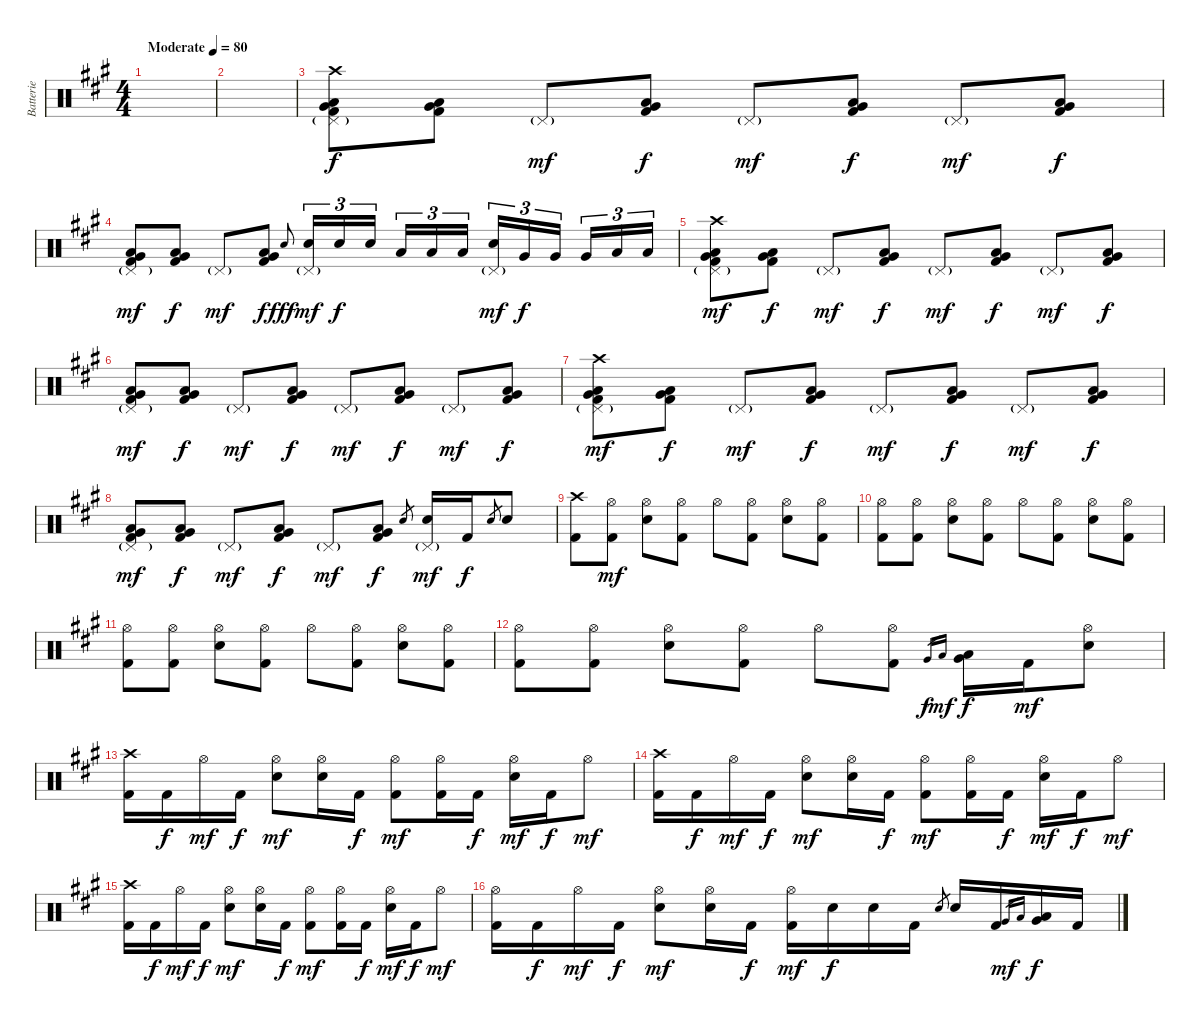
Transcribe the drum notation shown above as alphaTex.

\track ("Batterie" "Batterie") {instrument percussion}
\staff {score}
\articulation defaults
\ts (4 4)
\tempo (80 "Moderate")
\clef neutral
\ks a
|
|
("Crash high (hit)" "Pedal Hi-Hat (hit)"{g} "Low Floor Tom (hit)" "Very Low Tom (hit)" "Kick (hit) 2").8 ("Low Floor Tom (hit)" "Very Low Tom (hit)" "Kick (hit) 2").8{dy f} "Pedal Hi-Hat (hit)"{g}.8{dy mf} ("Low Floor Tom (hit)" "Very Low Tom (hit)" "Kick (hit) 2").8{dy f} "Pedal Hi-Hat (hit)"{g}.8{dy mf} ("Low Floor Tom (hit)" "Very Low Tom (hit)" "Kick (hit) 2").8{dy f} "Pedal Hi-Hat (hit)"{g}.8{dy mf} ("Low Floor Tom (hit)" "Very Low Tom (hit)" "Kick (hit) 2").8{dy f} |
("Pedal Hi-Hat (hit)"{g} "Low Floor Tom (hit)" "Very Low Tom (hit)" "Kick (hit) 2").8{dy mf} ("Low Floor Tom (hit)" "Very Low Tom (hit)" "Kick (hit) 2").8{dy f} "Pedal Hi-Hat (hit)"{g}.8{dy mf} ("Low Floor Tom (hit)" "Very Low Tom (hit)" "Kick (hit) 2").8{dy f} "Electric Snare (hit)".8{gr onbeat dy fff} ("Pedal Hi-Hat (hit)"{g} "Electric Snare (hit)").16{tu (3 2) dy mf} "Electric Snare (hit)".16{tu (3 2) dy f} "Electric Snare (hit)".16{tu (3 2) beam splitsecondary} "Low Tom (hit)".16{tu (3 2)} "Low Tom (hit)".16{tu (3 2)} "Low Tom (hit)".16{tu (3 2)} ("Pedal Hi-Hat (hit)"{g} "Electric Snare (hit)").16{tu (3 2) dy mf} "Very Low Tom (hit)".16{tu (3 2) dy f} "Very Low Tom (hit)".16{tu (3 2) beam splitsecondary} "Very Low Tom (hit)".16{tu (3 2)} "Low Floor Tom (hit)".16{tu (3 2)} "Low Floor Tom (hit)".16{tu (3 2)} |
("Crash high (hit)" "Pedal Hi-Hat (hit)"{g} "Low Floor Tom (hit)" "Very Low Tom (hit)" "Kick (hit) 2").8{dy mf} ("Low Floor Tom (hit)" "Very Low Tom (hit)" "Kick (hit) 2").8{dy f} "Pedal Hi-Hat (hit)"{g}.8{dy mf} ("Low Floor Tom (hit)" "Very Low Tom (hit)" "Kick (hit) 2").8{dy f} "Pedal Hi-Hat (hit)"{g}.8{dy mf} ("Low Floor Tom (hit)" "Very Low Tom (hit)" "Kick (hit) 2").8{dy f} "Pedal Hi-Hat (hit)"{g}.8{dy mf} ("Low Floor Tom (hit)" "Very Low Tom (hit)" "Kick (hit) 2").8{dy f} |
("Pedal Hi-Hat (hit)"{g} "Low Floor Tom (hit)" "Very Low Tom (hit)" "Kick (hit) 2").8{dy mf} ("Low Floor Tom (hit)" "Very Low Tom (hit)" "Kick (hit) 2").8{dy f} "Pedal Hi-Hat (hit)"{g}.8{dy mf} ("Low Floor Tom (hit)" "Very Low Tom (hit)" "Kick (hit) 2").8{dy f} "Pedal Hi-Hat (hit)"{g}.8{dy mf} ("Low Floor Tom (hit)" "Very Low Tom (hit)" "Kick (hit) 2").8{dy f} "Pedal Hi-Hat (hit)"{g}.8{dy mf} ("Low Floor Tom (hit)" "Very Low Tom (hit)" "Kick (hit) 2").8{dy f} |
("Crash high (hit)" "Pedal Hi-Hat (hit)"{g} "Low Floor Tom (hit)" "Very Low Tom (hit)" "Kick (hit) 2").8{dy mf} ("Low Floor Tom (hit)" "Very Low Tom (hit)" "Kick (hit) 2").8{dy f} "Pedal Hi-Hat (hit)"{g}.8{dy mf} ("Low Floor Tom (hit)" "Very Low Tom (hit)" "Kick (hit) 2").8{dy f} "Pedal Hi-Hat (hit)"{g}.8{dy mf} ("Low Floor Tom (hit)" "Very Low Tom (hit)" "Kick (hit) 2").8{dy f} "Pedal Hi-Hat (hit)"{g}.8{dy mf} ("Low Floor Tom (hit)" "Very Low Tom (hit)" "Kick (hit) 2").8{dy f} |
("Pedal Hi-Hat (hit)"{g} "Low Floor Tom (hit)" "Very Low Tom (hit)" "Kick (hit) 2").8{dy mf} ("Low Floor Tom (hit)" "Very Low Tom (hit)" "Kick (hit) 2").8{dy f} "Pedal Hi-Hat (hit)"{g}.8{dy mf} ("Low Floor Tom (hit)" "Very Low Tom (hit)" "Kick (hit) 2").8{dy f} "Pedal Hi-Hat (hit)"{g}.8{dy mf} ("Low Floor Tom (hit)" "Very Low Tom (hit)" "Kick (hit) 2").8{dy f} "Electric Snare (hit)".8{gr} ("Pedal Hi-Hat (hit)"{g} "Electric Snare (hit)").16{dy mf} "Kick (hit) 2".16{dy f} "Electric Snare (hit)".8{gr} "Electric Snare (hit)".8 |
("Crash high (hit)" "Kick (hit) 2").8 ("Hi-Hat (open)" "Kick (hit) 2").8{dy mf} ("Hi-Hat (open)" "Electric Snare (hit)").8 ("Hi-Hat (open)" "Kick (hit) 2").8 "Hi-Hat (open)".8 ("Hi-Hat (open)" "Kick (hit) 2").8 ("Hi-Hat (open)" "Electric Snare (hit)").8 ("Hi-Hat (open)" "Kick (hit) 2").8 |
("Hi-Hat (open)" "Kick (hit) 2").8 ("Hi-Hat (open)" "Kick (hit) 2").8 ("Hi-Hat (open)" "Electric Snare (hit)").8 ("Hi-Hat (open)" "Kick (hit) 2").8 "Hi-Hat (open)".8 ("Hi-Hat (open)" "Kick (hit) 2").8 ("Hi-Hat (open)" "Electric Snare (hit)").8 ("Hi-Hat (open)" "Kick (hit) 2").8 |
("Hi-Hat (open)" "Kick (hit) 2").8 ("Hi-Hat (open)" "Kick (hit) 2").8 ("Hi-Hat (open)" "Electric Snare (hit)").8 ("Hi-Hat (open)" "Kick (hit) 2").8 "Hi-Hat (open)".8 ("Hi-Hat (open)" "Kick (hit) 2").8 ("Hi-Hat (open)" "Electric Snare (hit)").8 ("Hi-Hat (open)" "Kick (hit) 2").8 |
("Hi-Hat (open)" "Kick (hit) 2").8 ("Hi-Hat (open)" "Kick (hit) 2").8 ("Hi-Hat (open)" "Electric Snare (hit)").8 ("Hi-Hat (open)" "Kick (hit) 2").8 "Hi-Hat (open)".8 ("Hi-Hat (open)" "Kick (hit) 2").8 "Very Low Tom (hit)".16{gr dy f} "Low Floor Tom (hit)".16{gr dy mf} ("Very Low Tom (hit)" "Low Floor Tom (hit)").16{dy f} "Kick (hit) 2".16{dy mf} ("Hi-Hat (open)" "Electric Snare (hit)").8 |
("Crash high (hit)" "Kick (hit) 2").16 "Kick (hit) 2".16{dy f} "Hi-Hat (open)".16{dy mf} "Kick (hit) 2".16{dy f} ("Hi-Hat (open)" "Electric Snare (hit)").8{dy mf} ("Hi-Hat (open)" "Electric Snare (hit)").16 "Kick (hit) 2".16{dy f} ("Hi-Hat (open)" "Kick (hit) 2").8{dy mf} ("Hi-Hat (open)" "Kick (hit) 2").16 "Kick (hit) 2".16{dy f} ("Hi-Hat (open)" "Electric Snare (hit)").16{dy mf} "Kick (hit) 2".16{dy f} "Hi-Hat (open)".8{dy mf} |
("Crash high (hit)" "Kick (hit) 2").16 "Kick (hit) 2".16{dy f} "Hi-Hat (open)".16{dy mf} "Kick (hit) 2".16{dy f} ("Hi-Hat (open)" "Electric Snare (hit)").8{dy mf} ("Hi-Hat (open)" "Electric Snare (hit)").16 "Kick (hit) 2".16{dy f} ("Hi-Hat (open)" "Kick (hit) 2").8{dy mf} ("Hi-Hat (open)" "Kick (hit) 2").16 "Kick (hit) 2".16{dy f} ("Hi-Hat (open)" "Electric Snare (hit)").16{dy mf} "Kick (hit) 2".16{dy f} "Hi-Hat (open)".8{dy mf} |
("Crash high (hit)" "Kick (hit) 2").16 "Kick (hit) 2".16{dy f} "Hi-Hat (open)".16{dy mf} "Kick (hit) 2".16{dy f} ("Hi-Hat (open)" "Electric Snare (hit)").8{dy mf} ("Hi-Hat (open)" "Electric Snare (hit)").16 "Kick (hit) 2".16{dy f} ("Hi-Hat (open)" "Kick (hit) 2").8{dy mf} ("Hi-Hat (open)" "Kick (hit) 2").16 "Kick (hit) 2".16{dy f} ("Hi-Hat (open)" "Electric Snare (hit)").16{dy mf} "Kick (hit) 2".16{dy f} "Hi-Hat (open)".8{dy mf} |
("Hi-Hat (open)" "Kick (hit) 2").16 "Kick (hit) 2".16{dy f} "Hi-Hat (open)".16{dy mf} "Kick (hit) 2".16{dy f} ("Hi-Hat (open)" "Electric Snare (hit)").8{dy mf} ("Hi-Hat (open)" "Electric Snare (hit)").16 "Kick (hit) 2".16{dy f} ("Hi-Hat (open)" "Kick (hit) 2").16{dy mf} "Electric Snare (hit)".16{dy f} "Electric Snare (hit)".16 "Kick (hit) 2".16 "Electric Snare (hit)".8{gr} "Electric Snare (hit)".16 "Kick (hit) 2".16 "Very Low Tom (hit)".16{gr dy mf} "Low Floor Tom (hit)".16{gr} ("Very Low Tom (hit)" "Low Floor Tom (hit)").16{dy f} "Kick (hit) 2".16
